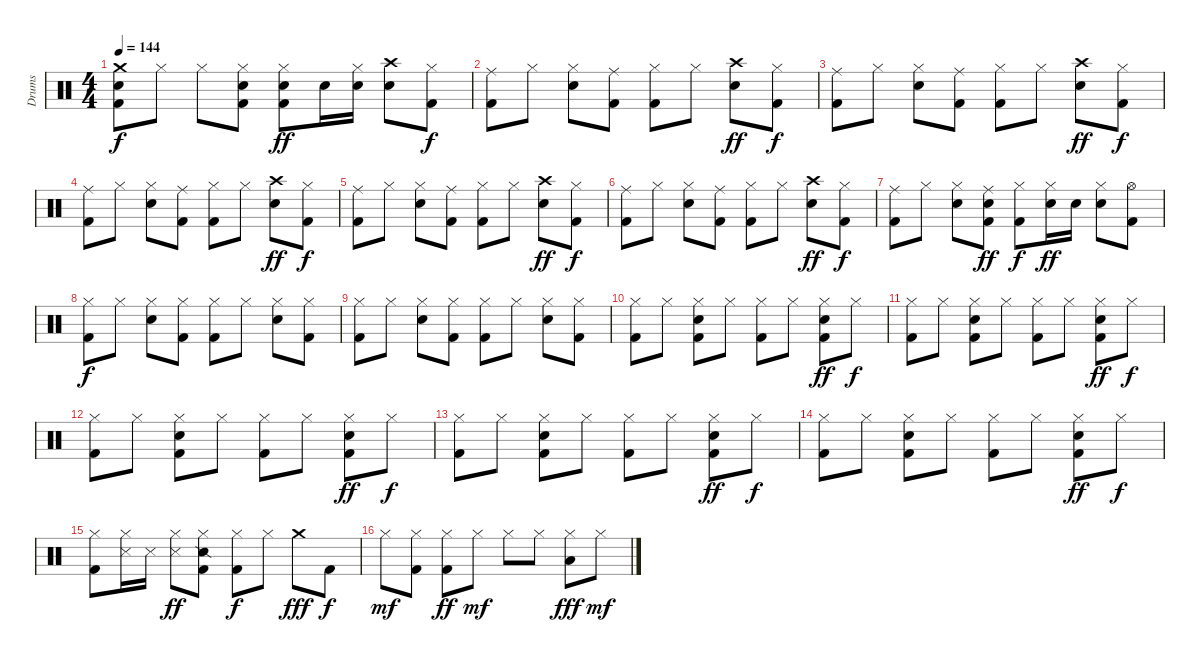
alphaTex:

\track ("Drums" "Drums") {instrument percussion}
\staff {score}
\articulation defaults
\ts (4 4)
\tempo 144
\clef neutral
\ks c
("Crash medium (hit)" "Snare (hit) 2" "Kick (hit) 2").8{dy f} "Hi-Hat (closed)".8 "Hi-Hat (closed)".8 ("Hi-Hat (closed)" "Snare (hit) 2" "Kick (hit) 2").8 ("Hi-Hat (closed)" "Snare (hit) 2" "Kick (hit) 2").8{dy ff} "Snare (hit) 2".16 ("Hi-Hat (closed)" "Snare (hit) 2").16 ("Crash high (hit)" "Snare (hit) 2").8 ("Hi-Hat (closed)" "Kick (hit) 2").8{dy f} |
("Ride (middle)" "Kick (hit) 2").8 "Hi-Hat (closed)".8 ("Hi-Hat (closed)" "Snare (hit) 2").8 ("Ride (middle)" "Kick (hit) 2").8 ("Hi-Hat (closed)" "Kick (hit) 2").8 "Hi-Hat (closed)".8 ("Crash high (hit)" "Snare (hit) 2").8{dy ff} ("Hi-Hat (closed)" "Kick (hit) 2").8{dy f} |
("Ride (middle)" "Kick (hit) 2").8 "Hi-Hat (closed)".8 ("Hi-Hat (closed)" "Snare (hit) 2").8 ("Ride (middle)" "Kick (hit) 2").8 ("Hi-Hat (closed)" "Kick (hit) 2").8 "Hi-Hat (closed)".8 ("Crash high (hit)" "Snare (hit) 2").8{dy ff} ("Hi-Hat (closed)" "Kick (hit) 2").8{dy f} |
("Ride (middle)" "Kick (hit) 2").8 "Hi-Hat (closed)".8 ("Hi-Hat (closed)" "Snare (hit) 2").8 ("Ride (middle)" "Kick (hit) 2").8 ("Hi-Hat (closed)" "Kick (hit) 2").8 "Hi-Hat (closed)".8 ("Crash high (hit)" "Snare (hit) 2").8{dy ff} ("Hi-Hat (closed)" "Kick (hit) 2").8{dy f} |
("Ride (middle)" "Kick (hit) 2").8 "Hi-Hat (closed)".8 ("Hi-Hat (closed)" "Snare (hit) 2").8 ("Ride (middle)" "Kick (hit) 2").8 ("Hi-Hat (closed)" "Kick (hit) 2").8 "Hi-Hat (closed)".8 ("Crash high (hit)" "Snare (hit) 2").8{dy ff} ("Hi-Hat (closed)" "Kick (hit) 2").8{dy f} |
("Ride (middle)" "Kick (hit) 2").8 "Hi-Hat (closed)".8 ("Hi-Hat (closed)" "Snare (hit) 2").8 ("Ride (middle)" "Kick (hit) 2").8 ("Hi-Hat (closed)" "Kick (hit) 2").8 "Hi-Hat (closed)".8 ("Crash high (hit)" "Snare (hit) 2").8{dy ff} ("Hi-Hat (closed)" "Kick (hit) 2").8{dy f} |
("Ride (middle)" "Kick (hit) 2").8 "Hi-Hat (closed)".8 ("Hi-Hat (closed)" "Snare (hit) 2").8 ("Ride (middle)" "Snare (hit) 2" "Kick (hit) 2").8{dy ff} ("Hi-Hat (closed)" "Kick (hit) 2").8{dy f} ("Hi-Hat (closed)" "Snare (hit) 2").16{dy ff} "Snare (hit) 2".16 ("Hi-Hat (closed)" "Snare (hit) 2").8 ("Hi-Hat (open)" "Kick (hit) 2").8 |
("Hi-Hat (closed)" "Kick (hit) 2").8{dy f} "Hi-Hat (closed)".8 ("Hi-Hat (closed)" "Snare (hit) 2").8 ("Hi-Hat (closed)" "Kick (hit) 2").8 ("Hi-Hat (closed)" "Kick (hit) 2").8 "Hi-Hat (closed)".8 ("Hi-Hat (closed)" "Snare (hit) 2").8 ("Hi-Hat (closed)" "Kick (hit) 2").8 |
("Hi-Hat (closed)" "Kick (hit) 2").8 "Hi-Hat (closed)".8 ("Hi-Hat (closed)" "Snare (hit) 2").8 ("Hi-Hat (closed)" "Kick (hit) 2").8 ("Hi-Hat (closed)" "Kick (hit) 2").8 "Hi-Hat (closed)".8 ("Hi-Hat (closed)" "Snare (hit) 2").8 ("Hi-Hat (closed)" "Kick (hit) 2").8 |
("Hi-Hat (closed)" "Kick (hit) 2").8 "Hi-Hat (closed)".8 ("Hi-Hat (closed)" "Snare (hit) 2" "Kick (hit) 2").8 "Hi-Hat (closed)".8 ("Hi-Hat (closed)" "Kick (hit) 2").8 "Hi-Hat (closed)".8 ("Hi-Hat (closed)" "Snare (hit) 2" "Kick (hit) 2").8{dy ff} "Hi-Hat (closed)".8{dy f} |
("Hi-Hat (closed)" "Kick (hit) 2").8 "Hi-Hat (closed)".8 ("Hi-Hat (closed)" "Snare (hit) 2" "Kick (hit) 2").8 "Hi-Hat (closed)".8 ("Hi-Hat (closed)" "Kick (hit) 2").8 "Hi-Hat (closed)".8 ("Hi-Hat (closed)" "Snare (hit) 2" "Kick (hit) 2").8{dy ff} "Hi-Hat (closed)".8{dy f} |
("Hi-Hat (closed)" "Kick (hit) 2").8 "Hi-Hat (closed)".8 ("Hi-Hat (closed)" "Snare (hit) 2" "Kick (hit) 2").8 "Hi-Hat (closed)".8 ("Hi-Hat (closed)" "Kick (hit) 2").8 "Hi-Hat (closed)".8 ("Hi-Hat (closed)" "Snare (hit) 2" "Kick (hit) 2").8{dy ff} "Hi-Hat (closed)".8{dy f} |
("Hi-Hat (closed)" "Kick (hit) 2").8 "Hi-Hat (closed)".8 ("Hi-Hat (closed)" "Snare (hit) 2" "Kick (hit) 2").8 "Hi-Hat (closed)".8 ("Hi-Hat (closed)" "Kick (hit) 2").8 "Hi-Hat (closed)".8 ("Hi-Hat (closed)" "Snare (hit) 2" "Kick (hit) 2").8{dy ff} "Hi-Hat (closed)".8{dy f} |
("Hi-Hat (closed)" "Kick (hit) 2").8 "Hi-Hat (closed)".8 ("Hi-Hat (closed)" "Snare (hit) 2" "Kick (hit) 2").8 "Hi-Hat (closed)".8 ("Hi-Hat (closed)" "Kick (hit) 2").8 "Hi-Hat (closed)".8 ("Hi-Hat (closed)" "Snare (hit) 2" "Kick (hit) 2").8{dy ff} "Hi-Hat (closed)".8{dy f} |
("Hi-Hat (closed)" "Kick (hit) 2").8 ("Hi-Hat (closed)" "Snare (side stick) 3").16 "Snare (side stick) 3".16 ("Hi-Hat (closed)" "Snare (side stick) 3").8{dy ff} ("Hi-Hat (closed)" "Snare (side stick) 2" "Kick (hit) 2").8 ("Hi-Hat (closed)" "Kick (hit) 2").8{dy f} "Hi-Hat (closed)".8 "Crash medium (hit)".8{dy fff} "Kick (hit) 2".8{dy f} |
"Hi-Hat (closed)".8{dy mf} ("Hi-Hat (closed)" "Kick (hit) 2").8 ("Hi-Hat (closed)" "Kick (hit) 2").8{dy ff} "Hi-Hat (closed)".8{dy mf} "Hi-Hat (closed)".8 "Hi-Hat (closed)".8 ("Hi-Hat (closed)" "Low Tom (hit)").8{dy fff} "Hi-Hat (closed)".8{dy mf}
